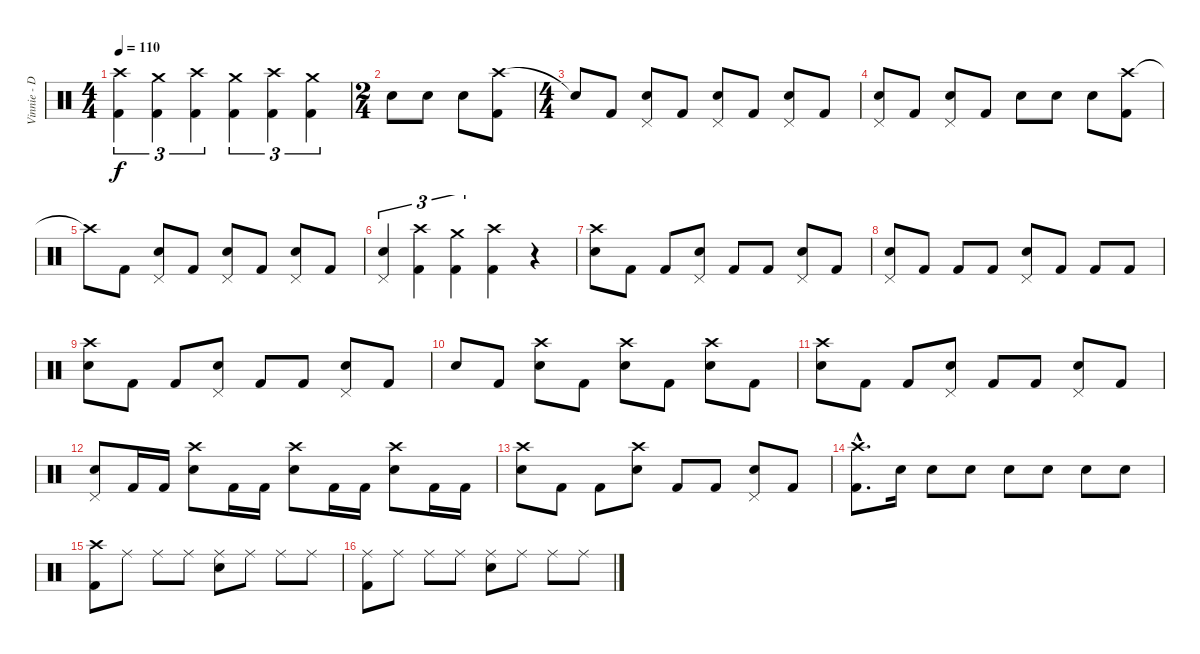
\track ("Vinnie - Drums" "Vinnie - D") {instrument percussion}
\staff {score}
\articulation defaults
\ts (4 4)
\tempo 110
\clef neutral
\ks c
("Crash high (hit)" "Kick (hit) 2").4{tu (3 2) dy f} ("Crash medium (hit)" "Kick (hit) 2").4{tu (3 2)} ("Crash high (hit)" "Kick (hit) 2").4{tu (3 2)} ("Crash medium (hit)" "Kick (hit) 2").4{tu (3 2)} ("Crash high (hit)" "Kick (hit) 2").4{tu (3 2)} ("Crash medium (hit)" "Kick (hit) 2").4{tu (3 2)} |
\ts (2 4)
"Electric Snare (hit)".8 "Electric Snare (hit)".8 "Electric Snare (hit)".8 ("Crash high (hit)" "Kick (hit) 2").8 |
\ts (4 4)
"Snare (hit)"{t}.8 "Kick (hit) 2".8 ("Pedal Hi-Hat (hit)" "Electric Snare (hit)").8 "Kick (hit) 2".8 ("Pedal Hi-Hat (hit)" "Electric Snare (hit)").8 "Kick (hit) 2".8 ("Pedal Hi-Hat (hit)" "Electric Snare (hit)").8 "Kick (hit) 2".8 |
("Pedal Hi-Hat (hit)" "Electric Snare (hit)").8 "Kick (hit) 2".8 ("Pedal Hi-Hat (hit)" "Electric Snare (hit)").8 "Kick (hit) 2".8 "Electric Snare (hit)".8 "Electric Snare (hit)".8 "Electric Snare (hit)".8 ("Crash high (hit)" "Kick (hit) 2").8 |
"Crash high (hit)"{t}.8 "Kick (hit) 2".8 ("Pedal Hi-Hat (hit)" "Electric Snare (hit)").8 "Kick (hit) 2".8 ("Pedal Hi-Hat (hit)" "Electric Snare (hit)").8 "Kick (hit) 2".8 ("Pedal Hi-Hat (hit)" "Electric Snare (hit)").8 "Kick (hit) 2".8 |
("Pedal Hi-Hat (hit)" "Electric Snare (hit)").4{tu (3 2)} ("Crash high (hit)" "Kick (hit) 2").4{tu (3 2)} ("Crash medium (hit)" "Kick (hit) 2").4{tu (3 2)} ("Crash high (hit)" "Kick (hit) 2").4 r.4 |
("Crash high (hit)" "Electric Snare (hit)").8 "Kick (hit) 2".8 "Kick (hit) 2".8 ("Pedal Hi-Hat (hit)" "Electric Snare (hit)").8 "Kick (hit) 2".8 "Kick (hit) 2".8 ("Pedal Hi-Hat (hit)" "Electric Snare (hit)").8 "Kick (hit) 2".8 |
("Pedal Hi-Hat (hit)" "Electric Snare (hit)").8 "Kick (hit) 2".8 "Kick (hit) 2".8 "Kick (hit) 2".8 ("Pedal Hi-Hat (hit)" "Electric Snare (hit)").8 "Kick (hit) 2".8 "Kick (hit) 2".8 "Kick (hit) 2".8 |
("Crash high (hit)" "Electric Snare (hit)").8 "Kick (hit) 2".8 "Kick (hit) 2".8 ("Pedal Hi-Hat (hit)" "Electric Snare (hit)").8 "Kick (hit) 2".8 "Kick (hit) 2".8 ("Pedal Hi-Hat (hit)" "Electric Snare (hit)").8 "Kick (hit) 2".8 |
"Electric Snare (hit)".8 "Kick (hit) 2".8 ("Crash high (hit)" "Electric Snare (hit)").8 "Kick (hit) 2".8 ("Crash high (hit)" "Electric Snare (hit)").8 "Kick (hit) 2".8 ("Crash high (hit)" "Electric Snare (hit)").8 "Kick (hit) 2".8 |
("Crash high (hit)" "Electric Snare (hit)").8 "Kick (hit) 2".8 "Kick (hit) 2".8 ("Pedal Hi-Hat (hit)" "Electric Snare (hit)").8 "Kick (hit) 2".8 "Kick (hit) 2".8 ("Pedal Hi-Hat (hit)" "Electric Snare (hit)").8 "Kick (hit) 2".8 |
("Pedal Hi-Hat (hit)" "Electric Snare (hit)").8 "Kick (hit) 2".16 "Kick (hit) 2".16 ("Crash high (hit)" "Electric Snare (hit)").8 "Kick (hit) 2".16 "Kick (hit) 2".16 ("Crash high (hit)" "Electric Snare (hit)").8 "Kick (hit) 2".16 "Kick (hit) 2".16 ("Crash high (hit)" "Electric Snare (hit)").8 "Kick (hit) 2".16 "Kick (hit) 2".16 |
("Crash high (hit)" "Electric Snare (hit)").8 "Kick (hit) 2".8 "Kick (hit) 2".8 ("Crash high (hit)" "Electric Snare (hit)").8 "Kick (hit) 2".8 "Kick (hit) 2".8 ("Pedal Hi-Hat (hit)" "Electric Snare (hit)").8 "Kick (hit) 2".8 |
("Crash high (hit)"{hac} "Kick (hit) 2"{hac}).8{d} "Electric Snare (hit)".16 "Electric Snare (hit)".8 "Electric Snare (hit)".8 "Electric Snare (hit)".8 "Electric Snare (hit)".8 "Electric Snare (hit)".8 "Electric Snare (hit)".8 |
("Crash high (hit)" "Kick (hit) 2").8 "Ride (middle)".8 "Ride (middle)".8 "Ride (middle)".8 ("Ride (middle)" "Electric Snare (hit)").8 "Ride (middle)".8 "Ride (middle)".8 "Ride (middle)".8 |
("Ride (middle)" "Kick (hit) 2").8 "Ride (middle)".8 "Ride (middle)".8 "Ride (middle)".8 ("Ride (middle)" "Electric Snare (hit)").8 "Ride (middle)".8 "Ride (middle)".8 "Ride (middle)".8
